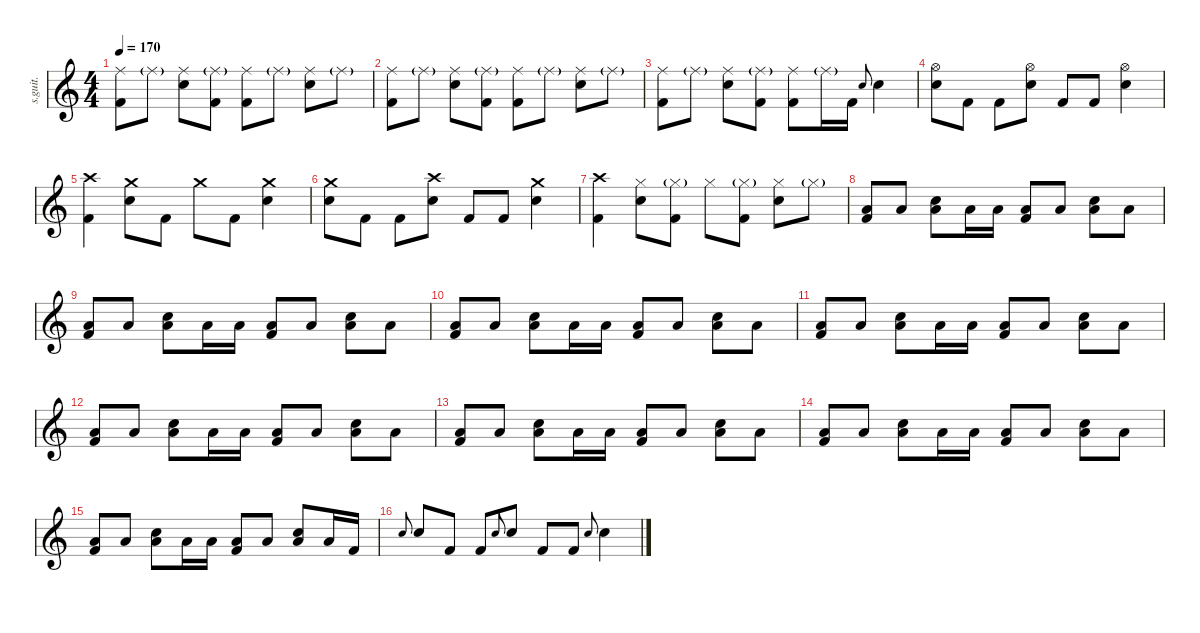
\defaultSystemsLayout 4
\hideDynamics
\bracketExtendMode nobrackets
\track ("Drumkit" "s.guit.") {instrument percussion}
\staff {score}
\articulation defaults
\ts (4 4)
\tempo 170
\clef g2
\ks c
("Ride (middle)" "Kick (hit) 2").8{lyrics (0 "") lyrics (1 "") lyrics (2 "") lyrics (3 "") lyrics (4 "") dy ff} "Ride (middle)"{g}.8{lyrics (0 "") lyrics (1 "") lyrics (2 "") lyrics (3 "") lyrics (4 "")} ("Ride (middle)" "Snare (hit) 2").8{lyrics (0 "") lyrics (1 "") lyrics (2 "") lyrics (3 "") lyrics (4 "")} ("Ride (middle)"{g} "Kick (hit) 2").8{lyrics (0 "") lyrics (1 "") lyrics (2 "") lyrics (3 "") lyrics (4 "")} ("Ride (middle)" "Kick (hit) 2").8{lyrics (0 "") lyrics (1 "") lyrics (2 "") lyrics (3 "") lyrics (4 "")} "Ride (middle)"{g}.8{lyrics (0 "") lyrics (1 "") lyrics (2 "") lyrics (3 "") lyrics (4 "")} ("Ride (middle)" "Snare (hit) 2").8{lyrics (0 "") lyrics (1 "") lyrics (2 "") lyrics (3 "") lyrics (4 "")} "Ride (middle)"{g}.8{lyrics (0 "") lyrics (1 "") lyrics (2 "") lyrics (3 "") lyrics (4 "")} |
("Ride (middle)" "Kick (hit) 2").8{lyrics (0 "") lyrics (1 "") lyrics (2 "") lyrics (3 "") lyrics (4 "")} "Ride (middle)"{g}.8{lyrics (0 "") lyrics (1 "") lyrics (2 "") lyrics (3 "") lyrics (4 "")} ("Ride (middle)" "Snare (hit) 2").8{lyrics (0 "") lyrics (1 "") lyrics (2 "") lyrics (3 "") lyrics (4 "")} ("Ride (middle)"{g} "Kick (hit) 2").8{lyrics (0 "") lyrics (1 "") lyrics (2 "") lyrics (3 "") lyrics (4 "")} ("Ride (middle)" "Kick (hit) 2").8{lyrics (0 "") lyrics (1 "") lyrics (2 "") lyrics (3 "") lyrics (4 "")} "Ride (middle)"{g}.8{lyrics (0 "") lyrics (1 "") lyrics (2 "") lyrics (3 "") lyrics (4 "")} ("Ride (middle)" "Snare (hit) 2").8{lyrics (0 "") lyrics (1 "") lyrics (2 "") lyrics (3 "") lyrics (4 "")} "Ride (middle)"{g}.8{lyrics (0 "") lyrics (1 "") lyrics (2 "") lyrics (3 "") lyrics (4 "")} |
("Ride (middle)" "Kick (hit) 2").8{lyrics (0 "") lyrics (1 "") lyrics (2 "") lyrics (3 "") lyrics (4 "")} "Ride (middle)"{g}.8{lyrics (0 "") lyrics (1 "") lyrics (2 "") lyrics (3 "") lyrics (4 "")} ("Ride (middle)" "Snare (hit) 2").8{lyrics (0 "") lyrics (1 "") lyrics (2 "") lyrics (3 "") lyrics (4 "")} ("Ride (middle)"{g} "Kick (hit) 2").8{lyrics (0 "") lyrics (1 "") lyrics (2 "") lyrics (3 "") lyrics (4 "")} ("Ride (middle)" "Kick (hit) 2").8{lyrics (0 "") lyrics (1 "") lyrics (2 "") lyrics (3 "") lyrics (4 "")} "Ride (middle)"{g}.16{lyrics (0 "") lyrics (1 "") lyrics (2 "") lyrics (3 "") lyrics (4 "")} "Kick (hit) 2".16{lyrics (0 "") lyrics (1 "") lyrics (2 "") lyrics (3 "") lyrics (4 "")} "Snare (hit) 2".8{lyrics (0 "") lyrics (1 "") lyrics (2 "") lyrics (3 "") lyrics (4 "") gr onbeat} "Snare (hit) 2".4{lyrics (0 "") lyrics (1 "") lyrics (2 "") lyrics (3 "") lyrics (4 "")} |
("Snare (hit) 2" "Hi-Hat (open)").8{lyrics (0 "") lyrics (1 "") lyrics (2 "") lyrics (3 "") lyrics (4 "")} "Kick (hit) 2".8{lyrics (0 "") lyrics (1 "") lyrics (2 "") lyrics (3 "") lyrics (4 "")} "Kick (hit) 2".8{lyrics (0 "") lyrics (1 "") lyrics (2 "") lyrics (3 "") lyrics (4 "")} ("Snare (hit) 2" "Hi-Hat (open)").8{lyrics (0 "") lyrics (1 "") lyrics (2 "") lyrics (3 "") lyrics (4 "")} "Kick (hit) 2".8{lyrics (0 "") lyrics (1 "") lyrics (2 "") lyrics (3 "") lyrics (4 "")} "Kick (hit) 2".8{lyrics (0 "") lyrics (1 "") lyrics (2 "") lyrics (3 "") lyrics (4 "")} ("Snare (hit) 2" "Hi-Hat (open)").4{lyrics (0 "") lyrics (1 "") lyrics (2 "") lyrics (3 "") lyrics (4 "")} |
("Crash high (hit)" "Kick (hit) 2").4{lyrics (0 "") lyrics (1 "") lyrics (2 "") lyrics (3 "") lyrics (4 "")} ("Snare (hit) 2" "Crash medium (hit)").8{lyrics (0 "") lyrics (1 "") lyrics (2 "") lyrics (3 "") lyrics (4 "")} "Kick (hit) 2".8{lyrics (0 "") lyrics (1 "") lyrics (2 "") lyrics (3 "") lyrics (4 "")} "Crash medium (hit)".8{lyrics (0 "") lyrics (1 "") lyrics (2 "") lyrics (3 "") lyrics (4 "")} "Kick (hit) 2".8{lyrics (0 "") lyrics (1 "") lyrics (2 "") lyrics (3 "") lyrics (4 "")} ("Snare (hit) 2" "Crash medium (hit)").4{lyrics (0 "") lyrics (1 "") lyrics (2 "") lyrics (3 "") lyrics (4 "")} |
("Snare (hit) 2" "Crash medium (hit)").8{lyrics (0 "") lyrics (1 "") lyrics (2 "") lyrics (3 "") lyrics (4 "")} "Kick (hit) 2".8{lyrics (0 "") lyrics (1 "") lyrics (2 "") lyrics (3 "") lyrics (4 "")} "Kick (hit) 2".8{lyrics (0 "") lyrics (1 "") lyrics (2 "") lyrics (3 "") lyrics (4 "")} ("Snare (hit) 2" "Crash high (hit)").8{lyrics (0 "") lyrics (1 "") lyrics (2 "") lyrics (3 "") lyrics (4 "")} "Kick (hit) 2".8{lyrics (0 "") lyrics (1 "") lyrics (2 "") lyrics (3 "") lyrics (4 "")} "Kick (hit) 2".8{lyrics (0 "") lyrics (1 "") lyrics (2 "") lyrics (3 "") lyrics (4 "")} ("Snare (hit) 2" "Crash medium (hit)").4{lyrics (0 "") lyrics (1 "") lyrics (2 "") lyrics (3 "") lyrics (4 "")} |
("Crash high (hit)" "Kick (hit) 2").4{lyrics (0 "") lyrics (1 "") lyrics (2 "") lyrics (3 "") lyrics (4 "")} ("Snare (hit) 2" "Hi-Hat (closed)").8{lyrics (0 "") lyrics (1 "") lyrics (2 "") lyrics (3 "") lyrics (4 "")} ("Hi-Hat (closed)"{g} "Kick (hit) 2").8{lyrics (0 "") lyrics (1 "") lyrics (2 "") lyrics (3 "") lyrics (4 "")} "Hi-Hat (closed)".8{lyrics (0 "") lyrics (1 "") lyrics (2 "") lyrics (3 "") lyrics (4 "")} ("Hi-Hat (closed)"{g} "Kick (hit) 2").8{lyrics (0 "") lyrics (1 "") lyrics (2 "") lyrics (3 "") lyrics (4 "")} ("Snare (hit) 2" "Hi-Hat (closed)").8{lyrics (0 "") lyrics (1 "") lyrics (2 "") lyrics (3 "") lyrics (4 "")} "Hi-Hat (closed)"{g}.8{lyrics (0 "") lyrics (1 "") lyrics (2 "") lyrics (3 "") lyrics (4 "")} |
("Low Floor Tom (hit)" "Kick (hit) 2").8{lyrics (0 "") lyrics (1 "") lyrics (2 "") lyrics (3 "") lyrics (4 "")} "Low Floor Tom (hit)".8{lyrics (0 "") lyrics (1 "") lyrics (2 "") lyrics (3 "") lyrics (4 "")} ("Snare (hit) 2" "Low Floor Tom (hit)").8{lyrics (0 "") lyrics (1 "") lyrics (2 "") lyrics (3 "") lyrics (4 "")} "Low Floor Tom (hit)".16{lyrics (0 "") lyrics (1 "") lyrics (2 "") lyrics (3 "") lyrics (4 "")} "Low Floor Tom (hit)".16{lyrics (0 "") lyrics (1 "") lyrics (2 "") lyrics (3 "") lyrics (4 "")} ("Low Floor Tom (hit)" "Kick (hit) 2").8{lyrics (0 "") lyrics (1 "") lyrics (2 "") lyrics (3 "") lyrics (4 "")} "Low Floor Tom (hit)".8{lyrics (0 "") lyrics (1 "") lyrics (2 "") lyrics (3 "") lyrics (4 "")} ("Snare (hit) 2" "Low Floor Tom (hit)").8{lyrics (0 "") lyrics (1 "") lyrics (2 "") lyrics (3 "") lyrics (4 "")} "Low Floor Tom (hit)".8{lyrics (0 "") lyrics (1 "") lyrics (2 "") lyrics (3 "") lyrics (4 "")} |
("Low Floor Tom (hit)" "Kick (hit) 2").8{lyrics (0 "") lyrics (1 "") lyrics (2 "") lyrics (3 "") lyrics (4 "")} "Low Floor Tom (hit)".8{lyrics (0 "") lyrics (1 "") lyrics (2 "") lyrics (3 "") lyrics (4 "")} ("Snare (hit) 2" "Low Floor Tom (hit)").8{lyrics (0 "") lyrics (1 "") lyrics (2 "") lyrics (3 "") lyrics (4 "")} "Low Floor Tom (hit)".16{lyrics (0 "") lyrics (1 "") lyrics (2 "") lyrics (3 "") lyrics (4 "")} "Low Floor Tom (hit)".16{lyrics (0 "") lyrics (1 "") lyrics (2 "") lyrics (3 "") lyrics (4 "")} ("Low Floor Tom (hit)" "Kick (hit) 2").8{lyrics (0 "") lyrics (1 "") lyrics (2 "") lyrics (3 "") lyrics (4 "")} "Low Floor Tom (hit)".8{lyrics (0 "") lyrics (1 "") lyrics (2 "") lyrics (3 "") lyrics (4 "")} ("Snare (hit) 2" "Low Floor Tom (hit)").8{lyrics (0 "") lyrics (1 "") lyrics (2 "") lyrics (3 "") lyrics (4 "")} "Low Floor Tom (hit)".8{lyrics (0 "") lyrics (1 "") lyrics (2 "") lyrics (3 "") lyrics (4 "")} |
("Low Floor Tom (hit)" "Kick (hit) 2").8{lyrics (0 "") lyrics (1 "") lyrics (2 "") lyrics (3 "") lyrics (4 "")} "Low Floor Tom (hit)".8{lyrics (0 "") lyrics (1 "") lyrics (2 "") lyrics (3 "") lyrics (4 "")} ("Snare (hit) 2" "Low Floor Tom (hit)").8{lyrics (0 "") lyrics (1 "") lyrics (2 "") lyrics (3 "") lyrics (4 "")} "Low Floor Tom (hit)".16{lyrics (0 "") lyrics (1 "") lyrics (2 "") lyrics (3 "") lyrics (4 "")} "Low Floor Tom (hit)".16{lyrics (0 "") lyrics (1 "") lyrics (2 "") lyrics (3 "") lyrics (4 "")} ("Low Floor Tom (hit)" "Kick (hit) 2").8{lyrics (0 "") lyrics (1 "") lyrics (2 "") lyrics (3 "") lyrics (4 "")} "Low Floor Tom (hit)".8{lyrics (0 "") lyrics (1 "") lyrics (2 "") lyrics (3 "") lyrics (4 "")} ("Snare (hit) 2" "Low Floor Tom (hit)").8{lyrics (0 "") lyrics (1 "") lyrics (2 "") lyrics (3 "") lyrics (4 "")} "Low Floor Tom (hit)".8{lyrics (0 "") lyrics (1 "") lyrics (2 "") lyrics (3 "") lyrics (4 "")} |
("Low Floor Tom (hit)" "Kick (hit) 2").8{lyrics (0 "") lyrics (1 "") lyrics (2 "") lyrics (3 "") lyrics (4 "")} "Low Floor Tom (hit)".8{lyrics (0 "") lyrics (1 "") lyrics (2 "") lyrics (3 "") lyrics (4 "")} ("Snare (hit) 2" "Low Floor Tom (hit)").8{lyrics (0 "") lyrics (1 "") lyrics (2 "") lyrics (3 "") lyrics (4 "")} "Low Floor Tom (hit)".16{lyrics (0 "") lyrics (1 "") lyrics (2 "") lyrics (3 "") lyrics (4 "")} "Low Floor Tom (hit)".16{lyrics (0 "") lyrics (1 "") lyrics (2 "") lyrics (3 "") lyrics (4 "")} ("Low Floor Tom (hit)" "Kick (hit) 2").8{lyrics (0 "") lyrics (1 "") lyrics (2 "") lyrics (3 "") lyrics (4 "")} "Low Floor Tom (hit)".8{lyrics (0 "") lyrics (1 "") lyrics (2 "") lyrics (3 "") lyrics (4 "")} ("Snare (hit) 2" "Low Floor Tom (hit)").8{lyrics (0 "") lyrics (1 "") lyrics (2 "") lyrics (3 "") lyrics (4 "")} "Low Floor Tom (hit)".8{lyrics (0 "") lyrics (1 "") lyrics (2 "") lyrics (3 "") lyrics (4 "")} |
("Low Floor Tom (hit)" "Kick (hit) 2").8{lyrics (0 "") lyrics (1 "") lyrics (2 "") lyrics (3 "") lyrics (4 "")} "Low Floor Tom (hit)".8{lyrics (0 "") lyrics (1 "") lyrics (2 "") lyrics (3 "") lyrics (4 "")} ("Snare (hit) 2" "Low Floor Tom (hit)").8{lyrics (0 "") lyrics (1 "") lyrics (2 "") lyrics (3 "") lyrics (4 "")} "Low Floor Tom (hit)".16{lyrics (0 "") lyrics (1 "") lyrics (2 "") lyrics (3 "") lyrics (4 "")} "Low Floor Tom (hit)".16{lyrics (0 "") lyrics (1 "") lyrics (2 "") lyrics (3 "") lyrics (4 "")} ("Low Floor Tom (hit)" "Kick (hit) 2").8{lyrics (0 "") lyrics (1 "") lyrics (2 "") lyrics (3 "") lyrics (4 "")} "Low Floor Tom (hit)".8{lyrics (0 "") lyrics (1 "") lyrics (2 "") lyrics (3 "") lyrics (4 "")} ("Snare (hit) 2" "Low Floor Tom (hit)").8{lyrics (0 "") lyrics (1 "") lyrics (2 "") lyrics (3 "") lyrics (4 "")} "Low Floor Tom (hit)".8{lyrics (0 "") lyrics (1 "") lyrics (2 "") lyrics (3 "") lyrics (4 "")} |
("Low Floor Tom (hit)" "Kick (hit) 2").8{lyrics (0 "") lyrics (1 "") lyrics (2 "") lyrics (3 "") lyrics (4 "")} "Low Floor Tom (hit)".8{lyrics (0 "") lyrics (1 "") lyrics (2 "") lyrics (3 "") lyrics (4 "")} ("Snare (hit) 2" "Low Floor Tom (hit)").8{lyrics (0 "") lyrics (1 "") lyrics (2 "") lyrics (3 "") lyrics (4 "")} "Low Floor Tom (hit)".16{lyrics (0 "") lyrics (1 "") lyrics (2 "") lyrics (3 "") lyrics (4 "")} "Low Floor Tom (hit)".16{lyrics (0 "") lyrics (1 "") lyrics (2 "") lyrics (3 "") lyrics (4 "")} ("Low Floor Tom (hit)" "Kick (hit) 2").8{lyrics (0 "") lyrics (1 "") lyrics (2 "") lyrics (3 "") lyrics (4 "")} "Low Floor Tom (hit)".8{lyrics (0 "") lyrics (1 "") lyrics (2 "") lyrics (3 "") lyrics (4 "")} ("Snare (hit) 2" "Low Floor Tom (hit)").8{lyrics (0 "") lyrics (1 "") lyrics (2 "") lyrics (3 "") lyrics (4 "")} "Low Floor Tom (hit)".8{lyrics (0 "") lyrics (1 "") lyrics (2 "") lyrics (3 "") lyrics (4 "")} |
("Low Floor Tom (hit)" "Kick (hit) 2").8{lyrics (0 "") lyrics (1 "") lyrics (2 "") lyrics (3 "") lyrics (4 "")} "Low Floor Tom (hit)".8{lyrics (0 "") lyrics (1 "") lyrics (2 "") lyrics (3 "") lyrics (4 "")} ("Snare (hit) 2" "Low Floor Tom (hit)").8{lyrics (0 "") lyrics (1 "") lyrics (2 "") lyrics (3 "") lyrics (4 "")} "Low Floor Tom (hit)".16{lyrics (0 "") lyrics (1 "") lyrics (2 "") lyrics (3 "") lyrics (4 "")} "Low Floor Tom (hit)".16{lyrics (0 "") lyrics (1 "") lyrics (2 "") lyrics (3 "") lyrics (4 "")} ("Low Floor Tom (hit)" "Kick (hit) 2").8{lyrics (0 "") lyrics (1 "") lyrics (2 "") lyrics (3 "") lyrics (4 "")} "Low Floor Tom (hit)".8{lyrics (0 "") lyrics (1 "") lyrics (2 "") lyrics (3 "") lyrics (4 "")} ("Snare (hit) 2" "Low Floor Tom (hit)").8{lyrics (0 "") lyrics (1 "") lyrics (2 "") lyrics (3 "") lyrics (4 "")} "Low Floor Tom (hit)".8{lyrics (0 "") lyrics (1 "") lyrics (2 "") lyrics (3 "") lyrics (4 "")} |
("Low Floor Tom (hit)" "Kick (hit) 2").8{lyrics (0 "") lyrics (1 "") lyrics (2 "") lyrics (3 "") lyrics (4 "")} "Low Floor Tom (hit)".8{lyrics (0 "") lyrics (1 "") lyrics (2 "") lyrics (3 "") lyrics (4 "")} ("Snare (hit) 2" "Low Floor Tom (hit)").8{lyrics (0 "") lyrics (1 "") lyrics (2 "") lyrics (3 "") lyrics (4 "")} "Low Floor Tom (hit)".16{lyrics (0 "") lyrics (1 "") lyrics (2 "") lyrics (3 "") lyrics (4 "")} "Low Floor Tom (hit)".16{lyrics (0 "") lyrics (1 "") lyrics (2 "") lyrics (3 "") lyrics (4 "")} ("Low Floor Tom (hit)" "Kick (hit) 2").8{lyrics (0 "") lyrics (1 "") lyrics (2 "") lyrics (3 "") lyrics (4 "")} "Low Floor Tom (hit)".8{lyrics (0 "") lyrics (1 "") lyrics (2 "") lyrics (3 "") lyrics (4 "")} ("Snare (hit) 2" "Low Floor Tom (hit)").8{lyrics (0 "") lyrics (1 "") lyrics (2 "") lyrics (3 "") lyrics (4 "")} "Low Floor Tom (hit)".16{lyrics (0 "") lyrics (1 "") lyrics (2 "") lyrics (3 "") lyrics (4 "")} "Kick (hit) 2".16{lyrics (0 "") lyrics (1 "") lyrics (2 "") lyrics (3 "") lyrics (4 "")} |
"Snare (hit) 2".8{lyrics (0 "") lyrics (1 "") lyrics (2 "") lyrics (3 "") lyrics (4 "") gr onbeat} "Snare (hit) 2".8{lyrics (0 "") lyrics (1 "") lyrics (2 "") lyrics (3 "") lyrics (4 "")} "Kick (hit) 2".8{lyrics (0 "") lyrics (1 "") lyrics (2 "") lyrics (3 "") lyrics (4 "")} "Kick (hit) 2".8{lyrics (0 "") lyrics (1 "") lyrics (2 "") lyrics (3 "") lyrics (4 "")} "Snare (hit) 2".8{lyrics (0 "") lyrics (1 "") lyrics (2 "") lyrics (3 "") lyrics (4 "") gr onbeat} "Snare (hit) 2".8{lyrics (0 "") lyrics (1 "") lyrics (2 "") lyrics (3 "") lyrics (4 "")} "Kick (hit) 2".8{lyrics (0 "") lyrics (1 "") lyrics (2 "") lyrics (3 "") lyrics (4 "")} "Kick (hit) 2".8{lyrics (0 "") lyrics (1 "") lyrics (2 "") lyrics (3 "") lyrics (4 "")} "Snare (hit) 2".8{lyrics (0 "") lyrics (1 "") lyrics (2 "") lyrics (3 "") lyrics (4 "") gr onbeat} "Snare (hit) 2".4{lyrics (0 "") lyrics (1 "") lyrics (2 "") lyrics (3 "") lyrics (4 "")}
